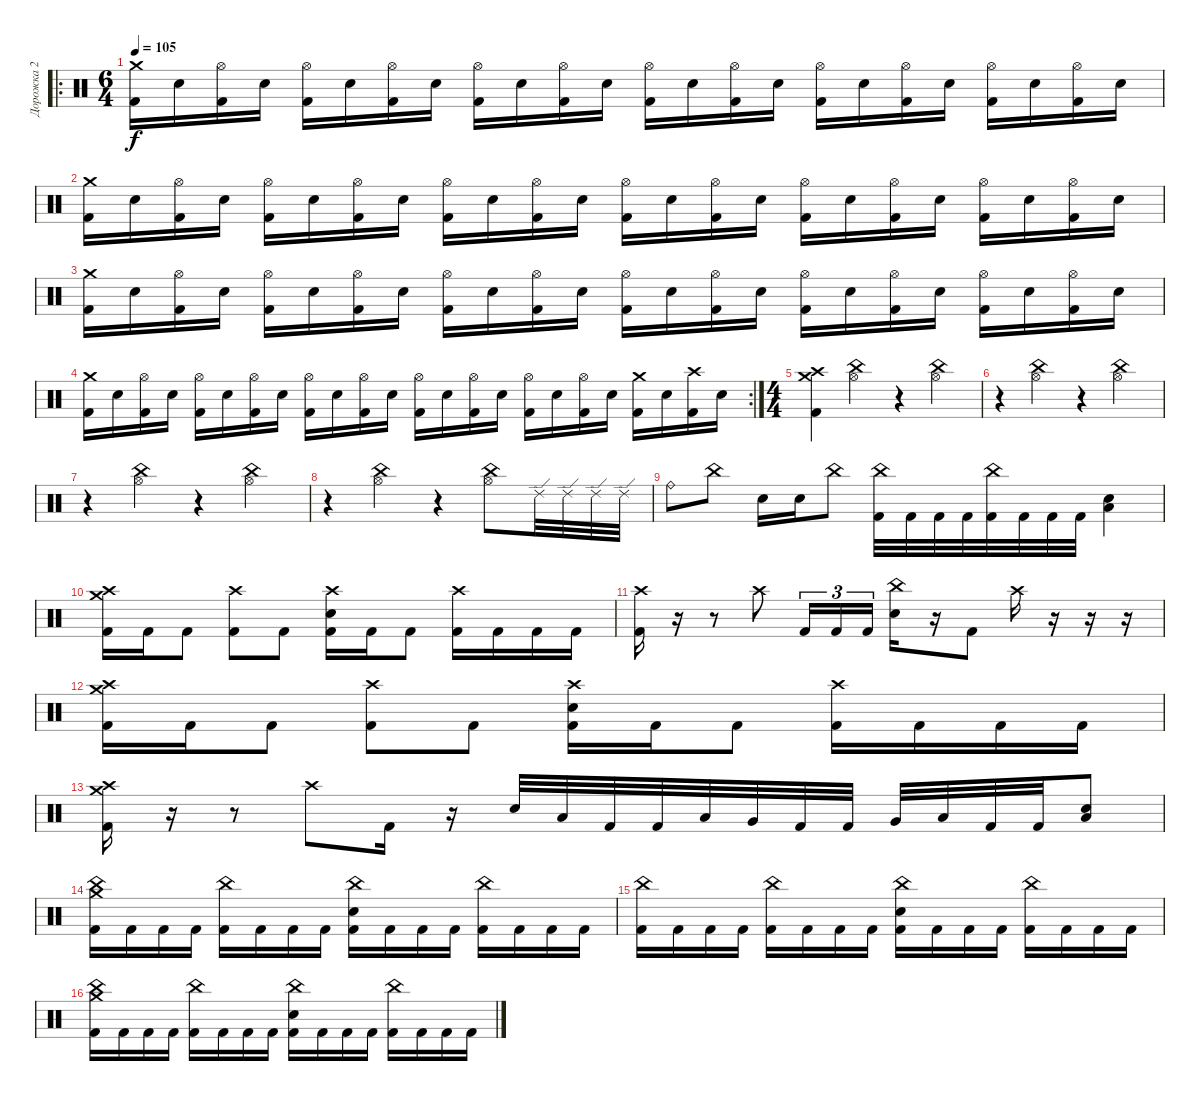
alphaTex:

\track ("Дорожка 2" "Дорожка 2") {instrument percussion}
\staff {score}
\articulation defaults
\ro
\ts (6 4)
\tempo 105
\clef neutral
\ks c
("Crash medium (hit)" "Kick (hit) 2").16{dy f} "Electric Snare (hit)".16 ("Hi-Hat (open)" "Kick (hit) 2").16 "Electric Snare (hit)".16 ("Hi-Hat (open)" "Kick (hit) 2").16 "Electric Snare (hit)".16 ("Hi-Hat (open)" "Kick (hit) 2").16 "Electric Snare (hit)".16 ("Hi-Hat (open)" "Kick (hit) 2").16 "Electric Snare (hit)".16 ("Hi-Hat (open)" "Kick (hit) 2").16 "Electric Snare (hit)".16 ("Hi-Hat (open)" "Kick (hit) 2").16 "Electric Snare (hit)".16 ("Hi-Hat (open)" "Kick (hit) 2").16 "Electric Snare (hit)".16 ("Hi-Hat (open)" "Kick (hit) 2").16 "Electric Snare (hit)".16 ("Hi-Hat (open)" "Kick (hit) 2").16 "Electric Snare (hit)".16 ("Hi-Hat (open)" "Kick (hit) 2").16 "Electric Snare (hit)".16 ("Hi-Hat (open)" "Kick (hit) 2").16 "Electric Snare (hit)".16 |
("Crash medium (hit)" "Kick (hit) 2").16 "Electric Snare (hit)".16 ("Hi-Hat (open)" "Kick (hit) 2").16 "Electric Snare (hit)".16 ("Hi-Hat (open)" "Kick (hit) 2").16 "Electric Snare (hit)".16 ("Hi-Hat (open)" "Kick (hit) 2").16 "Electric Snare (hit)".16 ("Hi-Hat (open)" "Kick (hit) 2").16 "Electric Snare (hit)".16 ("Hi-Hat (open)" "Kick (hit) 2").16 "Electric Snare (hit)".16 ("Hi-Hat (open)" "Kick (hit) 2").16 "Electric Snare (hit)".16 ("Hi-Hat (open)" "Kick (hit) 2").16 "Electric Snare (hit)".16 ("Hi-Hat (open)" "Kick (hit) 2").16 "Electric Snare (hit)".16 ("Hi-Hat (open)" "Kick (hit) 2").16 "Electric Snare (hit)".16 ("Hi-Hat (open)" "Kick (hit) 2").16 "Electric Snare (hit)".16 ("Hi-Hat (open)" "Kick (hit) 2").16 "Electric Snare (hit)".16 |
("Crash medium (hit)" "Kick (hit) 2").16 "Electric Snare (hit)".16 ("Hi-Hat (open)" "Kick (hit) 2").16 "Electric Snare (hit)".16 ("Hi-Hat (open)" "Kick (hit) 2").16 "Electric Snare (hit)".16 ("Hi-Hat (open)" "Kick (hit) 2").16 "Electric Snare (hit)".16 ("Hi-Hat (open)" "Kick (hit) 2").16 "Electric Snare (hit)".16 ("Hi-Hat (open)" "Kick (hit) 2").16 "Electric Snare (hit)".16 ("Hi-Hat (open)" "Kick (hit) 2").16 "Electric Snare (hit)".16 ("Hi-Hat (open)" "Kick (hit) 2").16 "Electric Snare (hit)".16 ("Hi-Hat (open)" "Kick (hit) 2").16 "Electric Snare (hit)".16 ("Hi-Hat (open)" "Kick (hit) 2").16 "Electric Snare (hit)".16 ("Hi-Hat (open)" "Kick (hit) 2").16 "Electric Snare (hit)".16 ("Hi-Hat (open)" "Kick (hit) 2").16 "Electric Snare (hit)".16 |
\rc 2
("Crash medium (hit)" "Kick (hit) 2").16 "Electric Snare (hit)".16 ("Hi-Hat (open)" "Kick (hit) 2").16 "Electric Snare (hit)".16 ("Hi-Hat (open)" "Kick (hit) 2").16 "Electric Snare (hit)".16 ("Hi-Hat (open)" "Kick (hit) 2").16 "Electric Snare (hit)".16 ("Hi-Hat (open)" "Kick (hit) 2").16 "Electric Snare (hit)".16 ("Hi-Hat (open)" "Kick (hit) 2").16 "Electric Snare (hit)".16 ("Hi-Hat (open)" "Kick (hit) 2").16 "Electric Snare (hit)".16 ("Hi-Hat (open)" "Kick (hit) 2").16 "Electric Snare (hit)".16 ("Hi-Hat (open)" "Kick (hit) 2").16 "Electric Snare (hit)".16 ("Hi-Hat (open)" "Kick (hit) 2").16 "Electric Snare (hit)".16 ("Crash medium (hit)" "Kick (hit) 2").16 "Electric Snare (hit)".16 ("Crash high (hit)" "Kick (hit) 2").16 "Electric Snare (hit)".16 |
\ts (4 4)
("Crash high (hit)" "Crash medium (hit)" "Kick (hit) 2").4 ("China (hit)" "Hi-Hat (open)").4 r.4 ("China (hit)" "Hi-Hat (open)").4 |
r.4 ("China (hit)" "Hi-Hat (open)").4 r.4 ("China (hit)" "Hi-Hat (open)").4 |
r.4 ("China (hit)" "Hi-Hat (open)").4 r.4 ("China (hit)" "Hi-Hat (open)").4 |
r.4 ("China (hit)" "Hi-Hat (open)").4 r.4 ("China (hit)" "Hi-Hat (open)").8 "Ride (edge) 2".32 "Ride (edge) 2".32 "Ride (edge) 2".32 "Ride (edge) 2".32 |
"Ride (bell)".8 "China (hit)".8 "Electric Snare (hit)".16 "Electric Snare (hit)".16 "China (hit)".8 ("China (hit)" "Kick (hit) 2").32 "Kick (hit) 2".32 "Kick (hit) 2".32 "Kick (hit) 2".32 ("China (hit)" "Kick (hit) 2").32 "Kick (hit) 2".32 "Kick (hit) 2".32 "Kick (hit) 2".32 ("Low Floor Tom (hit)" "Electric Snare (hit)").4 |
("Crash high (hit)" "Crash medium (hit)" "Kick (hit) 2").16 "Kick (hit) 2".16 "Kick (hit) 2".8 ("Crash high (hit)" "Kick (hit) 2").8 "Kick (hit) 2".8 ("Crash high (hit)" "Electric Snare (hit)" "Kick (hit) 2").16 "Kick (hit) 2".16 "Kick (hit) 2".8 ("Crash high (hit)" "Kick (hit) 2").16 "Kick (hit) 2".16 "Kick (hit) 2".16 "Kick (hit) 2".16 |
("Crash high (hit)" "Kick (hit) 2").16 r.16 r.8 "Crash high (hit)".8 "Kick (hit) 2".16{tu (3 2)} "Kick (hit) 2".16{tu (3 2)} "Kick (hit) 2".16{tu (3 2)} ("China (hit)" "Electric Snare (hit)").16 r.16 "Kick (hit) 2".8 "Crash high (hit)".16 r.16 r.16 r.16 |
("Crash high (hit)" "Crash medium (hit)" "Kick (hit) 2").16 "Kick (hit) 2".16 "Kick (hit) 2".8 ("Crash high (hit)" "Kick (hit) 2").8 "Kick (hit) 2".8 ("Crash high (hit)" "Electric Snare (hit)" "Kick (hit) 2").16 "Kick (hit) 2".16 "Kick (hit) 2".8 ("Crash high (hit)" "Kick (hit) 2").16 "Kick (hit) 2".16 "Kick (hit) 2".16 "Kick (hit) 2".16 |
("Crash high (hit)" "Crash medium (hit)" "Kick (hit) 2").16 r.16 r.8 "Crash high (hit)".8 "Kick (hit) 2".16 r.16 "Electric Snare (hit)".32 "Low Tom (hit)".32 "Kick (hit) 2".32 "Kick (hit) 2".32 "Low Tom (hit)".32 "Very Low Tom (hit)".32 "Kick (hit) 2".32 "Kick (hit) 2".32 "Very Low Tom (hit)".32 "Low Floor Tom (hit)".32 "Kick (hit) 2".32 "Kick (hit) 2".32 ("Low Floor Tom (hit)" "Electric Snare (hit)").8 |
("Kick (hit) 2" "Crash medium (hit)" "China (hit)").16 "Kick (hit) 2".16 "Kick (hit) 2".16 "Kick (hit) 2".16 ("Kick (hit) 2" "China (hit)").16 "Kick (hit) 2".16 "Kick (hit) 2".16 "Kick (hit) 2".16 ("Kick (hit) 2" "Electric Snare (hit)" "China (hit)").16 "Kick (hit) 2".16 "Kick (hit) 2".16 "Kick (hit) 2".16 ("Kick (hit) 2" "China (hit)").16 "Kick (hit) 2".16 "Kick (hit) 2".16 "Kick (hit) 2".16 |
("Kick (hit) 2" "China (hit)").16 "Kick (hit) 2".16 "Kick (hit) 2".16 "Kick (hit) 2".16 ("Kick (hit) 2" "China (hit)").16 "Kick (hit) 2".16 "Kick (hit) 2".16 "Kick (hit) 2".16 ("Kick (hit) 2" "Electric Snare (hit)" "China (hit)").16 "Kick (hit) 2".16 "Kick (hit) 2".16 "Kick (hit) 2".16 ("Kick (hit) 2" "China (hit)").16 "Kick (hit) 2".16 "Kick (hit) 2".16 "Kick (hit) 2".16 |
("Kick (hit) 2" "Crash medium (hit)" "China (hit)").16 "Kick (hit) 2".16 "Kick (hit) 2".16 "Kick (hit) 2".16 ("Kick (hit) 2" "China (hit)").16 "Kick (hit) 2".16 "Kick (hit) 2".16 "Kick (hit) 2".16 ("Kick (hit) 2" "Electric Snare (hit)" "China (hit)").16 "Kick (hit) 2".16 "Kick (hit) 2".16 "Kick (hit) 2".16 ("Kick (hit) 2" "China (hit)").16 "Kick (hit) 2".16 "Kick (hit) 2".16 "Kick (hit) 2".16
